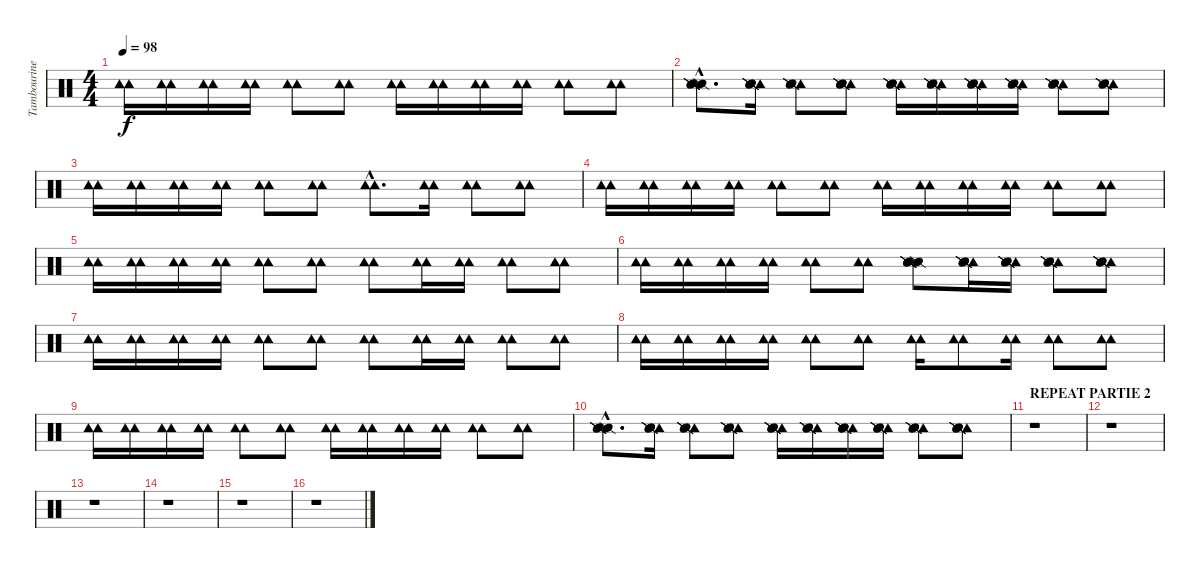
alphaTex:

\track ("Tambourine" "Tambourine") {instrument percussion}
\staff {score}
\articulation defaults
\ts (4 4)
\tempo 98
\clef neutral
\ks c
("Tambourine (hit)" "Tambourine (hit)").16{dy f} ("Tambourine (hit)" "Tambourine (hit)").16 ("Tambourine (hit)" "Tambourine (hit)").16 ("Tambourine (hit)" "Tambourine (hit)").16 ("Tambourine (hit)" "Tambourine (hit)").8 ("Tambourine (hit)" "Tambourine (hit)").8 ("Tambourine (hit)" "Tambourine (hit)").16 ("Tambourine (hit)" "Tambourine (hit)").16 ("Tambourine (hit)" "Tambourine (hit)").16 ("Tambourine (hit)" "Tambourine (hit)").16 ("Tambourine (hit)" "Tambourine (hit)").8 ("Tambourine (hit)" "Tambourine (hit)").8 |
("Snare (side stick) 2"{hac} "Snare (side stick) 2"{hac} "Snare (side stick) 2"{hac} "Snare (side stick) 2"{hac}).8{d} ("Tambourine (hit)" "Snare (side stick) 2" "Snare (side stick) 2" "Snare (side stick) 2").16 ("Tambourine (hit)" "Snare (side stick) 2" "Snare (side stick) 2" "Snare (side stick) 2").8 ("Tambourine (hit)" "Snare (side stick) 2" "Snare (side stick) 2" "Snare (side stick) 2").8 ("Tambourine (hit)" "Snare (side stick) 2" "Snare (side stick) 2" "Snare (side stick) 2").16 ("Tambourine (hit)" "Snare (side stick) 2" "Snare (side stick) 2" "Snare (side stick) 2").16 ("Tambourine (hit)" "Snare (side stick) 2" "Snare (side stick) 2" "Snare (side stick) 2").16 ("Tambourine (hit)" "Snare (side stick) 2" "Snare (side stick) 2" "Snare (side stick) 2").16 ("Tambourine (hit)" "Snare (side stick) 2" "Snare (side stick) 2" "Snare (side stick) 2").8 ("Tambourine (hit)" "Snare (side stick) 2" "Snare (side stick) 2" "Snare (side stick) 2").8 |
("Tambourine (hit)" "Tambourine (hit)").16 ("Tambourine (hit)" "Tambourine (hit)").16 ("Tambourine (hit)" "Tambourine (hit)").16 ("Tambourine (hit)" "Tambourine (hit)").16 ("Tambourine (hit)" "Tambourine (hit)").8 ("Tambourine (hit)" "Tambourine (hit)").8 ("Tambourine (hit)"{hac} "Tambourine (hit)"{hac}).8{d} ("Tambourine (hit)" "Tambourine (hit)").16 ("Tambourine (hit)" "Tambourine (hit)").8 ("Tambourine (hit)" "Tambourine (hit)").8 |
("Tambourine (hit)" "Tambourine (hit)").16 ("Tambourine (hit)" "Tambourine (hit)").16 ("Tambourine (hit)" "Tambourine (hit)").16 ("Tambourine (hit)" "Tambourine (hit)").16 ("Tambourine (hit)" "Tambourine (hit)").8 ("Tambourine (hit)" "Tambourine (hit)").8 ("Tambourine (hit)" "Tambourine (hit)").16 ("Tambourine (hit)" "Tambourine (hit)").16 ("Tambourine (hit)" "Tambourine (hit)").16 ("Tambourine (hit)" "Tambourine (hit)").16 ("Tambourine (hit)" "Tambourine (hit)").8 ("Tambourine (hit)" "Tambourine (hit)").8 |
("Tambourine (hit)" "Tambourine (hit)").16 ("Tambourine (hit)" "Tambourine (hit)").16 ("Tambourine (hit)" "Tambourine (hit)").16 ("Tambourine (hit)" "Tambourine (hit)").16 ("Tambourine (hit)" "Tambourine (hit)").8 ("Tambourine (hit)" "Tambourine (hit)").8 ("Tambourine (hit)" "Tambourine (hit)").8 ("Tambourine (hit)" "Tambourine (hit)").16 ("Tambourine (hit)" "Tambourine (hit)").16 ("Tambourine (hit)" "Tambourine (hit)").8 ("Tambourine (hit)" "Tambourine (hit)").8 |
("Tambourine (hit)" "Tambourine (hit)").16 ("Tambourine (hit)" "Tambourine (hit)").16 ("Tambourine (hit)" "Tambourine (hit)").16 ("Tambourine (hit)" "Tambourine (hit)").16 ("Tambourine (hit)" "Tambourine (hit)").8 ("Tambourine (hit)" "Tambourine (hit)").8 ("Snare (side stick) 2" "Snare (side stick) 2" "Snare (side stick) 2" "Snare (side stick) 2").8 ("Tambourine (hit)" "Snare (side stick) 2" "Snare (side stick) 2" "Snare (side stick) 2").16 ("Tambourine (hit)" "Snare (side stick) 2" "Snare (side stick) 2" "Snare (side stick) 2").16 ("Tambourine (hit)" "Snare (side stick) 2" "Snare (side stick) 2" "Snare (side stick) 2").8 ("Tambourine (hit)" "Snare (side stick) 2" "Snare (side stick) 2" "Snare (side stick) 2").8 |
("Tambourine (hit)" "Tambourine (hit)").16 ("Tambourine (hit)" "Tambourine (hit)").16 ("Tambourine (hit)" "Tambourine (hit)").16 ("Tambourine (hit)" "Tambourine (hit)").16 ("Tambourine (hit)" "Tambourine (hit)").8 ("Tambourine (hit)" "Tambourine (hit)").8 ("Tambourine (hit)" "Tambourine (hit)").8 ("Tambourine (hit)" "Tambourine (hit)").16 ("Tambourine (hit)" "Tambourine (hit)").16 ("Tambourine (hit)" "Tambourine (hit)").8 ("Tambourine (hit)" "Tambourine (hit)").8 |
("Tambourine (hit)" "Tambourine (hit)").16 ("Tambourine (hit)" "Tambourine (hit)").16 ("Tambourine (hit)" "Tambourine (hit)").16 ("Tambourine (hit)" "Tambourine (hit)").16 ("Tambourine (hit)" "Tambourine (hit)").8 ("Tambourine (hit)" "Tambourine (hit)").8 ("Tambourine (hit)" "Tambourine (hit)").16 ("Tambourine (hit)" "Tambourine (hit)").8 ("Tambourine (hit)" "Tambourine (hit)").16 ("Tambourine (hit)" "Tambourine (hit)").8 ("Tambourine (hit)" "Tambourine (hit)").8 |
("Tambourine (hit)" "Tambourine (hit)").16 ("Tambourine (hit)" "Tambourine (hit)").16 ("Tambourine (hit)" "Tambourine (hit)").16 ("Tambourine (hit)" "Tambourine (hit)").16 ("Tambourine (hit)" "Tambourine (hit)").8 ("Tambourine (hit)" "Tambourine (hit)").8 ("Tambourine (hit)" "Tambourine (hit)").16 ("Tambourine (hit)" "Tambourine (hit)").16 ("Tambourine (hit)" "Tambourine (hit)").16 ("Tambourine (hit)" "Tambourine (hit)").16 ("Tambourine (hit)" "Tambourine (hit)").8 ("Tambourine (hit)" "Tambourine (hit)").8 |
("Snare (side stick) 2"{hac} "Snare (side stick) 2"{hac} "Snare (side stick) 2"{hac} "Snare (side stick) 2"{hac}).8{d} ("Tambourine (hit)" "Snare (side stick) 2" "Snare (side stick) 2" "Snare (side stick) 2").16 ("Tambourine (hit)" "Snare (side stick) 2" "Snare (side stick) 2" "Snare (side stick) 2").8 ("Tambourine (hit)" "Snare (side stick) 2" "Snare (side stick) 2" "Snare (side stick) 2").8 ("Tambourine (hit)" "Snare (side stick) 2" "Snare (side stick) 2" "Snare (side stick) 2").16 ("Tambourine (hit)" "Snare (side stick) 2" "Snare (side stick) 2" "Snare (side stick) 2").16 ("Tambourine (hit)" "Snare (side stick) 2" "Snare (side stick) 2" "Snare (side stick) 2").16 ("Tambourine (hit)" "Snare (side stick) 2" "Snare (side stick) 2" "Snare (side stick) 2").16 ("Tambourine (hit)" "Snare (side stick) 2" "Snare (side stick) 2" "Snare (side stick) 2").8 ("Tambourine (hit)" "Snare (side stick) 2" "Snare (side stick) 2" "Snare (side stick) 2").8 |
\section ("" "REPEAT PARTIE 2")
r.1 |
r.1 |
r.1 |
r.1 |
r.1 |
r.1
